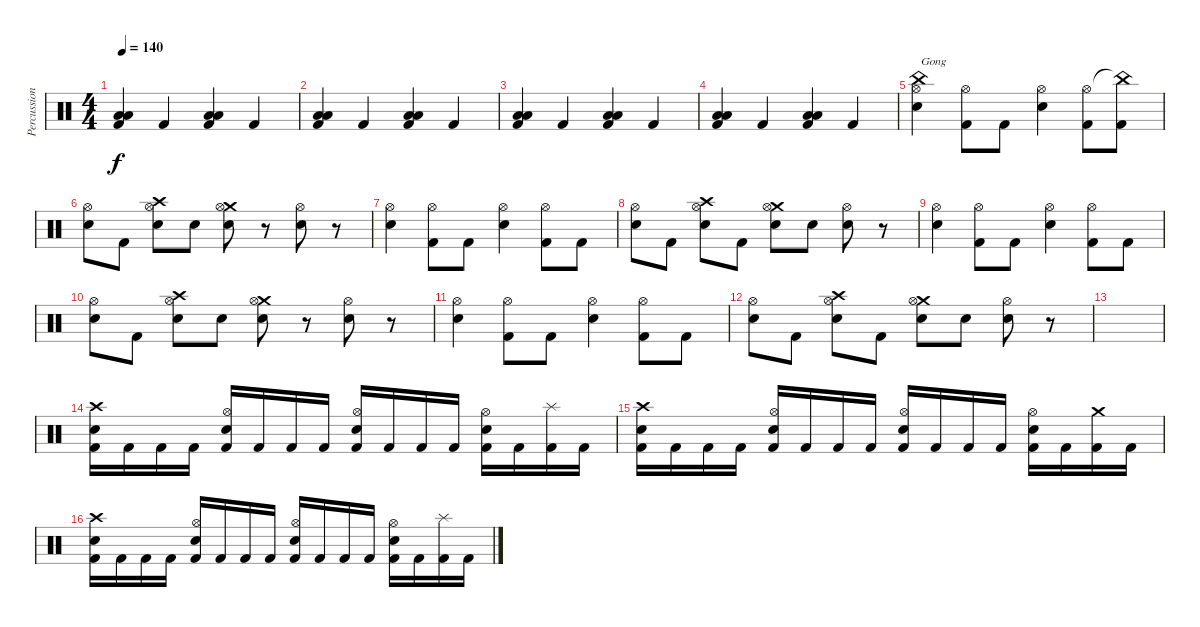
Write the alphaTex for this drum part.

\track ("Percussion" "Percussion") {instrument percussion}
\staff {score}
\articulation defaults
\ts (4 4)
\tempo 140
\clef neutral
\ks c
("Low Tom (hit)" "Low Floor Tom (hit)" "Kick (hit) 2").4{dy f} "Kick (hit) 2".4 ("Low Tom (hit)" "Low Floor Tom (hit)" "Kick (hit) 2").4 "Kick (hit) 2".4 |
("Low Tom (hit)" "Low Floor Tom (hit)" "Kick (hit) 2").4 "Kick (hit) 2".4 ("Low Tom (hit)" "Low Floor Tom (hit)" "Kick (hit) 2").4 "Kick (hit) 2".4 |
("Low Tom (hit)" "Low Floor Tom (hit)" "Kick (hit) 2").4 "Kick (hit) 2".4 ("Low Tom (hit)" "Low Floor Tom (hit)" "Kick (hit) 2").4 "Kick (hit) 2".4 |
("Low Tom (hit)" "Low Floor Tom (hit)" "Kick (hit) 2").4 "Kick (hit) 2".4 ("Low Tom (hit)" "Low Floor Tom (hit)" "Kick (hit) 2").4 "Kick (hit) 2".4 |
("China (hit)" "Hi-Hat (open)" "Snare (hit) 2").4{txt "Gong"} ("Hi-Hat (open)" "Kick (hit) 2").8 "Kick (hit) 2".8 ("Hi-Hat (open)" "Snare (hit) 2").4 ("Hi-Hat (open)" "Kick (hit) 2").8 ("China (hit)"{t} "Kick (hit) 2").8 |
("Hi-Hat (open)" "Snare (hit) 2").8 "Kick (hit) 2".8 ("Crash high (hit)" "Hi-Hat (open)" "Snare (hit) 2").8 "Snare (hit) 2".8 ("Crash medium (hit)" "Hi-Hat (open)" "Snare (hit) 2").8 r.8 ("Hi-Hat (open)" "Snare (hit) 2").8 r.8 |
("Hi-Hat (open)" "Snare (hit) 2").4 ("Hi-Hat (open)" "Kick (hit) 2").8 "Kick (hit) 2".8 ("Hi-Hat (open)" "Snare (hit) 2").4 ("Hi-Hat (open)" "Kick (hit) 2").8 "Kick (hit) 2".8 |
("Hi-Hat (open)" "Snare (hit) 2").8 "Kick (hit) 2".8 ("Crash high (hit)" "Hi-Hat (open)" "Snare (hit) 2").8 "Kick (hit) 2".8 ("Crash medium (hit)" "Hi-Hat (open)" "Snare (hit) 2").8 "Snare (hit) 2".8 ("Hi-Hat (open)" "Snare (hit) 2").8 r.8 |
("Hi-Hat (open)" "Snare (hit) 2").4 ("Hi-Hat (open)" "Kick (hit) 2").8 "Kick (hit) 2".8 ("Hi-Hat (open)" "Snare (hit) 2").4 ("Hi-Hat (open)" "Kick (hit) 2").8 "Kick (hit) 2".8 |
("Hi-Hat (open)" "Snare (hit) 2").8 "Kick (hit) 2".8 ("Crash high (hit)" "Hi-Hat (open)" "Snare (hit) 2").8 "Snare (hit) 2".8 ("Crash medium (hit)" "Hi-Hat (open)" "Snare (hit) 2").8 r.8 ("Hi-Hat (open)" "Snare (hit) 2").8 r.8 |
("Hi-Hat (open)" "Snare (hit) 2").4 ("Hi-Hat (open)" "Kick (hit) 2").8 "Kick (hit) 2".8 ("Hi-Hat (open)" "Snare (hit) 2").4 ("Hi-Hat (open)" "Kick (hit) 2").8 "Kick (hit) 2".8 |
("Hi-Hat (open)" "Snare (hit) 2").8 "Kick (hit) 2".8 ("Crash high (hit)" "Hi-Hat (open)" "Snare (hit) 2").8 "Kick (hit) 2".8 ("Crash medium (hit)" "Hi-Hat (open)" "Snare (hit) 2").8 "Snare (hit) 2".8 ("Hi-Hat (open)" "Snare (hit) 2").8 r.8 |
|
("Crash high (hit)" "Snare (hit) 2" "Kick (hit) 2").16 "Kick (hit) 2".16 "Kick (hit) 2".16 "Kick (hit) 2".16 ("Hi-Hat (open)" "Snare (hit) 2" "Kick (hit) 2").16 "Kick (hit) 2".16 "Kick (hit) 2".16 "Kick (hit) 2".16 ("Hi-Hat (open)" "Snare (hit) 2" "Kick (hit) 2").16 "Kick (hit) 2".16 "Kick (hit) 2".16 "Kick (hit) 2".16 ("Hi-Hat (open)" "Snare (hit) 2" "Kick (hit) 2").16 "Kick (hit) 2".16 ("Splash (hit)" "Kick (hit) 2").16 "Kick (hit) 2".16 |
("Crash high (hit)" "Snare (hit) 2" "Kick (hit) 2").16 "Kick (hit) 2".16 "Kick (hit) 2".16 "Kick (hit) 2".16 ("Hi-Hat (open)" "Snare (hit) 2" "Kick (hit) 2").16 "Kick (hit) 2".16 "Kick (hit) 2".16 "Kick (hit) 2".16 ("Hi-Hat (open)" "Snare (hit) 2" "Kick (hit) 2").16 "Kick (hit) 2".16 "Kick (hit) 2".16 "Kick (hit) 2".16 ("Hi-Hat (open)" "Snare (hit) 2" "Kick (hit) 2").16 "Kick (hit) 2".16 ("Crash medium (hit)" "Kick (hit) 2").16 "Kick (hit) 2".16 |
("Crash high (hit)" "Snare (hit) 2" "Kick (hit) 2").16 "Kick (hit) 2".16 "Kick (hit) 2".16 "Kick (hit) 2".16 ("Hi-Hat (open)" "Snare (hit) 2" "Kick (hit) 2").16 "Kick (hit) 2".16 "Kick (hit) 2".16 "Kick (hit) 2".16 ("Hi-Hat (open)" "Snare (hit) 2" "Kick (hit) 2").16 "Kick (hit) 2".16 "Kick (hit) 2".16 "Kick (hit) 2".16 ("Hi-Hat (open)" "Snare (hit) 2" "Kick (hit) 2").16 "Kick (hit) 2".16 ("Splash (hit)" "Kick (hit) 2").16 "Kick (hit) 2".16
